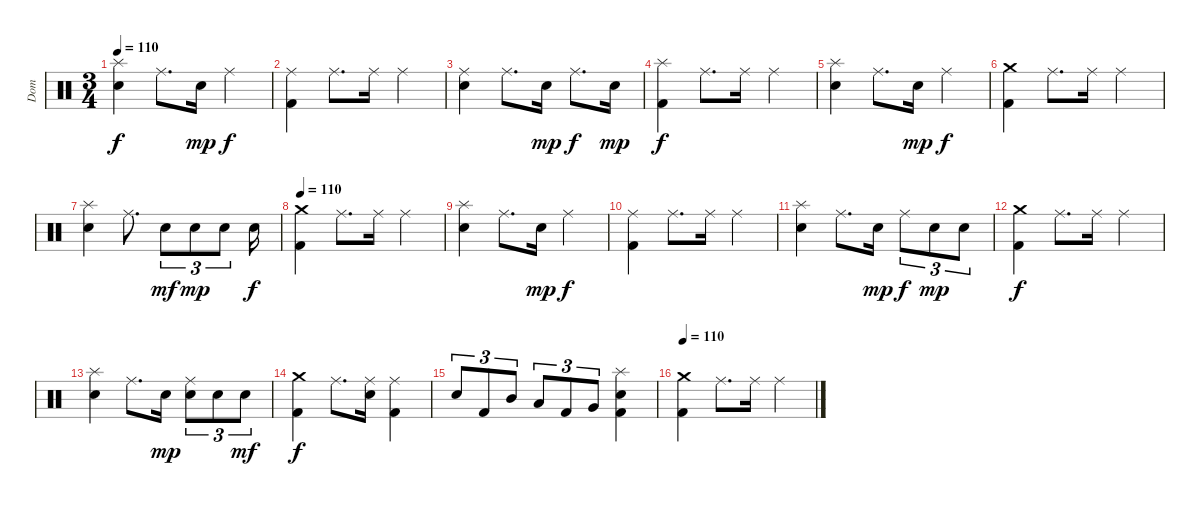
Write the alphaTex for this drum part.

\track ("Dom" "Dom") {instrument percussion}
\staff {score}
\articulation defaults
\ts (3 4)
\tempo 110
\clef neutral
\ks c
("Splash (hit)" "Snare (hit) 2").4{dy f} "Ride (middle)".8{d} "Snare (hit) 2".16{dy mp} "Ride (middle)".4{dy f} |
("Ride (middle)" "Kick (hit) 2").4 "Ride (middle)".8{d} "Ride (middle)".16 "Ride (middle)".4 |
("Ride (middle)" "Snare (hit) 2").4 "Ride (middle)".8{d} "Snare (hit) 2".16{dy mp} "Ride (middle)".8{d dy f} "Snare (hit) 2".16{dy mp} |
("Splash (hit)" "Kick (hit) 2").4{dy f} "Ride (middle)".8{d} "Ride (middle)".16 "Ride (middle)".4 |
("Splash (hit)" "Snare (hit) 2").4 "Ride (middle)".8{d} "Snare (hit) 2".16{dy mp} "Ride (middle)".4{dy f} |
("Crash medium (hit)" "Kick (hit) 2").4 "Ride (middle)".8{d} "Ride (middle)".16 "Ride (middle)".4 |
("Splash (hit)" "Snare (hit) 2").4 "Ride (middle)".8{d} "Snare (hit) 2".8{tu (3 2) dy mf} "Snare (hit) 2".8{tu (3 2) dy mp} "Snare (hit) 2".8{tu (3 2)} "Snare (hit) 2".16{dy f} |
\tempo 110
("Crash medium (hit)" "Kick (hit) 2").4 "Ride (middle)".8{d} "Ride (middle)".16 "Ride (middle)".4 |
("Splash (hit)" "Snare (hit) 2").4 "Ride (middle)".8{d} "Snare (hit) 2".16{dy mp} "Ride (middle)".4{dy f} |
("Ride (middle)" "Kick (hit) 2").4 "Ride (middle)".8{d} "Ride (middle)".16 "Ride (middle)".4 |
("Splash (hit)" "Snare (hit) 2").4 "Ride (middle)".8{d} "Snare (hit) 2".16{dy mp} "Ride (middle)".8{tu (3 2) dy f} "Snare (hit) 2".8{tu (3 2) dy mp} "Snare (hit) 2".8{tu (3 2)} |
("Crash medium (hit)" "Kick (hit) 2").4{dy f} "Ride (middle)".8{d} "Ride (middle)".16 "Ride (middle)".4 |
("Splash (hit)" "Snare (hit) 2").4 "Ride (middle)".8{d} "Snare (hit) 2".16{dy mp} ("Ride (middle)" "Snare (hit) 2").8{tu (3 2)} "Snare (hit) 2".8{tu (3 2)} "Snare (hit) 2".8{tu (3 2) dy mf} |
("Crash medium (hit)" "Kick (hit) 2").4{dy f} "Ride (middle)".8{d} ("Ride (middle)" "Snare (hit) 2").16 ("Ride (middle)" "Kick (hit) 2").4 |
"Snare (hit) 2".8{tu (3 2)} "Kick (hit) 2".8{tu (3 2)} "Mid Tom (hit)".8{tu (3 2)} "Low Tom (hit)".8{tu (3 2)} "Kick (hit) 2".8{tu (3 2)} "Very Low Tom (hit)".8{tu (3 2)} ("Splash (hit)" "Snare (hit) 2" "Kick (hit) 2").4 |
\tempo 110
("Crash medium (hit)" "Kick (hit) 2").4 "Ride (middle)".8{d} "Ride (middle)".16 "Ride (middle)".4
